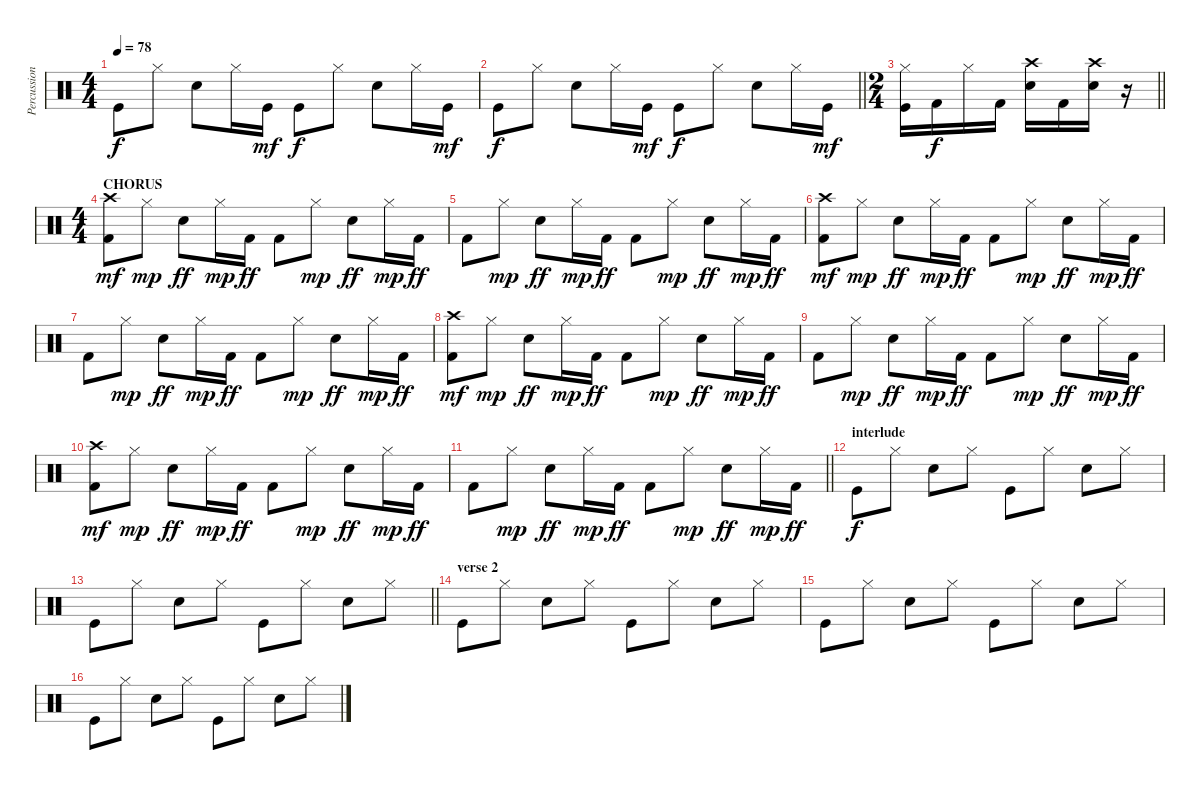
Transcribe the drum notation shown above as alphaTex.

\track ("Percussion" "Percussion") {instrument percussion}
\staff {score}
\articulation defaults
\ts (4 4)
\tempo 78
\clef neutral
\ks c "Kick (hit)".8{dy f} "Hi-Hat (closed)".8 "Electric Snare (hit)".8 "Hi-Hat (closed)".16 "Kick (hit)".16{dy mf} "Kick (hit)".8{dy f} "Hi-Hat (closed)".8 "Electric Snare (hit)".8 "Hi-Hat (closed)".16 "Kick (hit)".16{dy mf}
|
\barLineRight lightlight "Kick (hit)".8{dy f} "Hi-Hat (closed)".8 "Electric Snare (hit)".8 "Hi-Hat (closed)".16 "Kick (hit)".16{dy mf} "Kick (hit)".8{dy f} "Hi-Hat (closed)".8 "Electric Snare (hit)".8 "Hi-Hat (closed)".16 "Kick (hit)".16{dy mf}
|
\ts (2 4)
\barLineRight lightlight
("Kick (hit)" "Hi-Hat (closed)").16 "Kick (hit) 2".16{dy f} "Hi-Hat (closed)".16 "Kick (hit) 2".16 ("Crash high (hit)" "Snare (hit) 2").16 "Kick (hit) 2".16 ("Crash high (hit)" "Snare (hit) 2").16 r.16 |
\ts (4 4)
\section ("" "CHORUS")
("Kick (hit) 2" "Crash high (hit)").8{dy mf} "Hi-Hat (closed)".8{dy mp} "Snare (hit) 2".8{dy ff} "Hi-Hat (closed)".16{dy mp} "Kick (hit) 2".16{dy ff} "Kick (hit) 2".8 "Hi-Hat (closed)".8{dy mp} "Snare (hit) 2".8{dy ff} "Hi-Hat (closed)".16{dy mp} "Kick (hit) 2".16{dy ff} |
"Kick (hit) 2".8 "Hi-Hat (closed)".8{dy mp} "Snare (hit) 2".8{dy ff} "Hi-Hat (closed)".16{dy mp} "Kick (hit) 2".16{dy ff} "Kick (hit) 2".8 "Hi-Hat (closed)".8{dy mp} "Snare (hit) 2".8{dy ff} "Hi-Hat (closed)".16{dy mp} "Kick (hit) 2".16{dy ff} |
("Kick (hit) 2" "Crash high (hit)").8{dy mf} "Hi-Hat (closed)".8{dy mp} "Snare (hit) 2".8{dy ff} "Hi-Hat (closed)".16{dy mp} "Kick (hit) 2".16{dy ff} "Kick (hit) 2".8 "Hi-Hat (closed)".8{dy mp} "Snare (hit) 2".8{dy ff} "Hi-Hat (closed)".16{dy mp} "Kick (hit) 2".16{dy ff} |
"Kick (hit) 2".8 "Hi-Hat (closed)".8{dy mp} "Snare (hit) 2".8{dy ff} "Hi-Hat (closed)".16{dy mp} "Kick (hit) 2".16{dy ff} "Kick (hit) 2".8 "Hi-Hat (closed)".8{dy mp} "Snare (hit) 2".8{dy ff} "Hi-Hat (closed)".16{dy mp} "Kick (hit) 2".16{dy ff} |
("Kick (hit) 2" "Crash high (hit)").8{dy mf} "Hi-Hat (closed)".8{dy mp} "Snare (hit) 2".8{dy ff} "Hi-Hat (closed)".16{dy mp} "Kick (hit) 2".16{dy ff} "Kick (hit) 2".8 "Hi-Hat (closed)".8{dy mp} "Snare (hit) 2".8{dy ff} "Hi-Hat (closed)".16{dy mp} "Kick (hit) 2".16{dy ff} |
"Kick (hit) 2".8 "Hi-Hat (closed)".8{dy mp} "Snare (hit) 2".8{dy ff} "Hi-Hat (closed)".16{dy mp} "Kick (hit) 2".16{dy ff} "Kick (hit) 2".8 "Hi-Hat (closed)".8{dy mp} "Snare (hit) 2".8{dy ff} "Hi-Hat (closed)".16{dy mp} "Kick (hit) 2".16{dy ff} |
("Kick (hit) 2" "Crash high (hit)").8{dy mf} "Hi-Hat (closed)".8{dy mp} "Snare (hit) 2".8{dy ff} "Hi-Hat (closed)".16{dy mp} "Kick (hit) 2".16{dy ff} "Kick (hit) 2".8 "Hi-Hat (closed)".8{dy mp} "Snare (hit) 2".8{dy ff} "Hi-Hat (closed)".16{dy mp} "Kick (hit) 2".16{dy ff} |
\barLineRight lightlight "Kick (hit) 2".8 "Hi-Hat (closed)".8{dy mp} "Snare (hit) 2".8{dy ff} "Hi-Hat (closed)".16{dy mp} "Kick (hit) 2".16{dy ff} "Kick (hit) 2".8 "Hi-Hat (closed)".8{dy mp} "Snare (hit) 2".8{dy ff} "Hi-Hat (closed)".16{dy mp} "Kick (hit) 2".16{dy ff}
|
\section ("" "interlude")
"Kick (hit)".8{dy f} "Hi-Hat (closed)".8 "Electric Snare (hit)".8 "Hi-Hat (closed)".8 "Kick (hit)".8 "Hi-Hat (closed)".8 "Electric Snare (hit)".8 "Hi-Hat (closed)".8 |
\barLineRight lightlight "Kick (hit)".8 "Hi-Hat (closed)".8 "Electric Snare (hit)".8 "Hi-Hat (closed)".8 "Kick (hit)".8 "Hi-Hat (closed)".8 "Electric Snare (hit)".8 "Hi-Hat (closed)".8
|
\section ("" "verse 2")
"Kick (hit)".8 "Hi-Hat (closed)".8 "Electric Snare (hit)".8 "Hi-Hat (closed)".8 "Kick (hit)".8 "Hi-Hat (closed)".8 "Electric Snare (hit)".8 "Hi-Hat (closed)".8 |
"Kick (hit)".8 "Hi-Hat (closed)".8 "Electric Snare (hit)".8 "Hi-Hat (closed)".8 "Kick (hit)".8 "Hi-Hat (closed)".8 "Electric Snare (hit)".8 "Hi-Hat (closed)".8 |
"Kick (hit)".8 "Hi-Hat (closed)".8 "Electric Snare (hit)".8 "Hi-Hat (closed)".8 "Kick (hit)".8 "Hi-Hat (closed)".8 "Electric Snare (hit)".8 "Hi-Hat (closed)".8
